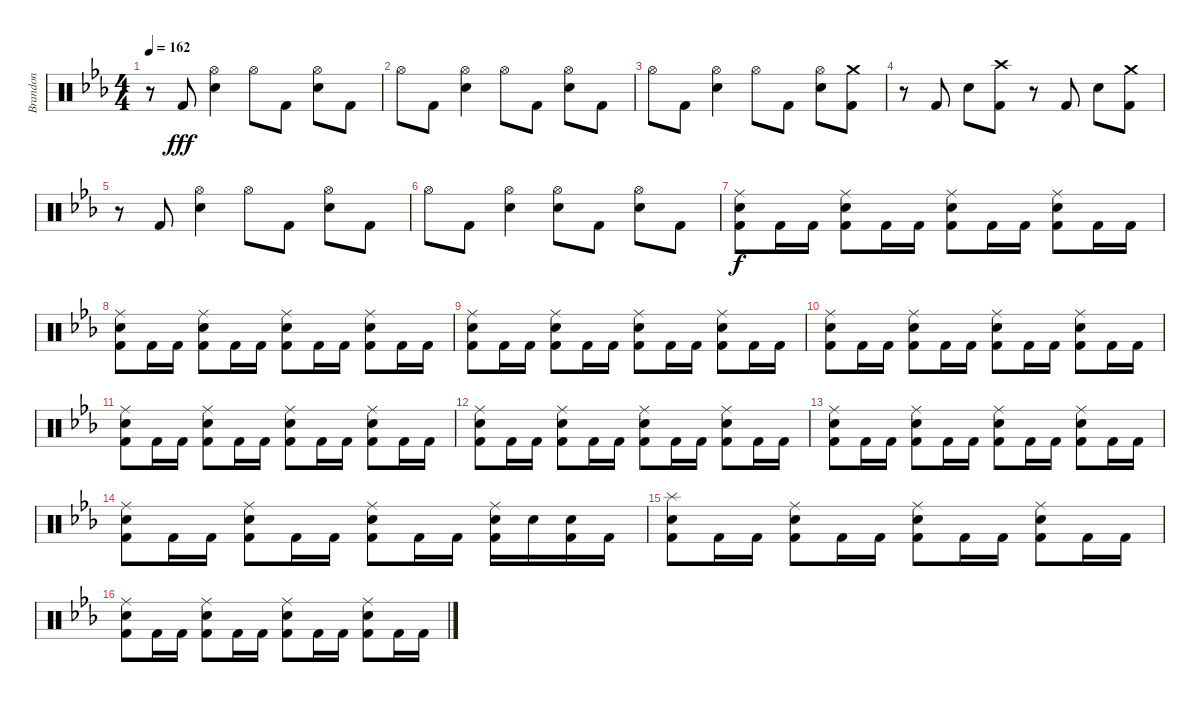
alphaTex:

\track ("Brandon" "Brandon") {instrument percussion}
\staff {score}
\articulation defaults
\ts (4 4)
\tempo 162
\clef neutral
\ks cminor
r.8{dy fff} "Kick (hit) 2".8 ("Hi-Hat (open)" "Electric Snare (hit)").4 "Hi-Hat (open)".8 "Kick (hit) 2".8 ("Hi-Hat (open)" "Electric Snare (hit)").8 "Kick (hit) 2".8 |
"Hi-Hat (open)".8 "Kick (hit) 2".8 ("Hi-Hat (open)" "Electric Snare (hit)").4 "Hi-Hat (open)".8 "Kick (hit) 2".8 ("Hi-Hat (open)" "Electric Snare (hit)").8 "Kick (hit) 2".8 |
"Hi-Hat (open)".8 "Kick (hit) 2".8 ("Hi-Hat (open)" "Electric Snare (hit)").4 "Hi-Hat (open)".8 "Kick (hit) 2".8 ("Hi-Hat (open)" "Electric Snare (hit)").8 ("Crash medium (hit)" "Kick (hit) 2").8 |
r.8 "Kick (hit) 2".8 "Electric Snare (hit)".8 ("Crash high (hit)" "Kick (hit) 2").8 r.8 "Kick (hit) 2".8 "Electric Snare (hit)".8 ("Crash medium (hit)" "Kick (hit) 2").8 |
r.8 "Kick (hit) 2".8 ("Hi-Hat (open)" "Electric Snare (hit)").4 "Hi-Hat (open)".8 "Kick (hit) 2".8 ("Hi-Hat (open)" "Electric Snare (hit)").8 "Kick (hit) 2".8 |
"Hi-Hat (open)".8 "Kick (hit) 2".8 ("Hi-Hat (open)" "Electric Snare (hit)").4 ("Hi-Hat (open)" "Electric Snare (hit)").8 "Kick (hit) 2".8 ("Hi-Hat (open)" "Electric Snare (hit)").8 "Kick (hit) 2".8 |
("Ride (middle)" "Electric Snare (hit)" "Kick (hit) 2").8{dy f} "Kick (hit) 2".16 "Kick (hit) 2".16 ("Ride (middle)" "Electric Snare (hit)" "Kick (hit) 2").8 "Kick (hit) 2".16 "Kick (hit) 2".16 ("Ride (middle)" "Electric Snare (hit)" "Kick (hit) 2").8 "Kick (hit) 2".16 "Kick (hit) 2".16 ("Ride (middle)" "Electric Snare (hit)" "Kick (hit) 2").8 "Kick (hit) 2".16 "Kick (hit) 2".16 |
("Ride (middle)" "Electric Snare (hit)" "Kick (hit) 2").8 "Kick (hit) 2".16 "Kick (hit) 2".16 ("Ride (middle)" "Electric Snare (hit)" "Kick (hit) 2").8 "Kick (hit) 2".16 "Kick (hit) 2".16 ("Ride (middle)" "Electric Snare (hit)" "Kick (hit) 2").8 "Kick (hit) 2".16 "Kick (hit) 2".16 ("Ride (middle)" "Electric Snare (hit)" "Kick (hit) 2").8 "Kick (hit) 2".16 "Kick (hit) 2".16 |
("Ride (middle)" "Electric Snare (hit)" "Kick (hit) 2").8 "Kick (hit) 2".16 "Kick (hit) 2".16 ("Ride (middle)" "Electric Snare (hit)" "Kick (hit) 2").8 "Kick (hit) 2".16 "Kick (hit) 2".16 ("Ride (middle)" "Electric Snare (hit)" "Kick (hit) 2").8 "Kick (hit) 2".16 "Kick (hit) 2".16 ("Ride (middle)" "Electric Snare (hit)" "Kick (hit) 2").8 "Kick (hit) 2".16 "Kick (hit) 2".16 |
("Ride (middle)" "Electric Snare (hit)" "Kick (hit) 2").8 "Kick (hit) 2".16 "Kick (hit) 2".16 ("Ride (middle)" "Electric Snare (hit)" "Kick (hit) 2").8 "Kick (hit) 2".16 "Kick (hit) 2".16 ("Ride (middle)" "Electric Snare (hit)" "Kick (hit) 2").8 "Kick (hit) 2".16 "Kick (hit) 2".16 ("Ride (middle)" "Electric Snare (hit)" "Kick (hit) 2").8 "Kick (hit) 2".16 "Kick (hit) 2".16 |
("Ride (middle)" "Electric Snare (hit)" "Kick (hit) 2").8 "Kick (hit) 2".16 "Kick (hit) 2".16 ("Ride (middle)" "Electric Snare (hit)" "Kick (hit) 2").8 "Kick (hit) 2".16 "Kick (hit) 2".16 ("Ride (middle)" "Electric Snare (hit)" "Kick (hit) 2").8 "Kick (hit) 2".16 "Kick (hit) 2".16 ("Ride (middle)" "Electric Snare (hit)" "Kick (hit) 2").8 "Kick (hit) 2".16 "Kick (hit) 2".16 |
("Ride (middle)" "Electric Snare (hit)" "Kick (hit) 2").8 "Kick (hit) 2".16 "Kick (hit) 2".16 ("Ride (middle)" "Electric Snare (hit)" "Kick (hit) 2").8 "Kick (hit) 2".16 "Kick (hit) 2".16 ("Ride (middle)" "Electric Snare (hit)" "Kick (hit) 2").8 "Kick (hit) 2".16 "Kick (hit) 2".16 ("Ride (middle)" "Electric Snare (hit)" "Kick (hit) 2").8 "Kick (hit) 2".16 "Kick (hit) 2".16 |
("Ride (middle)" "Electric Snare (hit)" "Kick (hit) 2").8 "Kick (hit) 2".16 "Kick (hit) 2".16 ("Ride (middle)" "Electric Snare (hit)" "Kick (hit) 2").8 "Kick (hit) 2".16 "Kick (hit) 2".16 ("Ride (middle)" "Electric Snare (hit)" "Kick (hit) 2").8 "Kick (hit) 2".16 "Kick (hit) 2".16 ("Ride (middle)" "Electric Snare (hit)" "Kick (hit) 2").8 "Kick (hit) 2".16 "Kick (hit) 2".16 |
("Ride (middle)" "Electric Snare (hit)" "Kick (hit) 2").8 "Kick (hit) 2".16 "Kick (hit) 2".16 ("Ride (middle)" "Electric Snare (hit)" "Kick (hit) 2").8 "Kick (hit) 2".16 "Kick (hit) 2".16 ("Ride (middle)" "Electric Snare (hit)" "Kick (hit) 2").8 "Kick (hit) 2".16 "Kick (hit) 2".16 ("Ride (middle)" "Electric Snare (hit)" "Kick (hit) 2").16 "Electric Snare (hit)".16 ("Electric Snare (hit)" "Kick (hit) 2").16 "Kick (hit) 2".16 |
("Splash (hit)" "Electric Snare (hit)" "Kick (hit) 2").8 "Kick (hit) 2".16 "Kick (hit) 2".16 ("Ride (middle)" "Electric Snare (hit)" "Kick (hit) 2").8 "Kick (hit) 2".16 "Kick (hit) 2".16 ("Ride (middle)" "Electric Snare (hit)" "Kick (hit) 2").8 "Kick (hit) 2".16 "Kick (hit) 2".16 ("Ride (middle)" "Electric Snare (hit)" "Kick (hit) 2").8 "Kick (hit) 2".16 "Kick (hit) 2".16 |
("Ride (middle)" "Electric Snare (hit)" "Kick (hit) 2").8 "Kick (hit) 2".16 "Kick (hit) 2".16 ("Ride (middle)" "Electric Snare (hit)" "Kick (hit) 2").8 "Kick (hit) 2".16 "Kick (hit) 2".16 ("Ride (middle)" "Electric Snare (hit)" "Kick (hit) 2").8 "Kick (hit) 2".16 "Kick (hit) 2".16 ("Ride (middle)" "Electric Snare (hit)" "Kick (hit) 2").8 "Kick (hit) 2".16 "Kick (hit) 2".16
